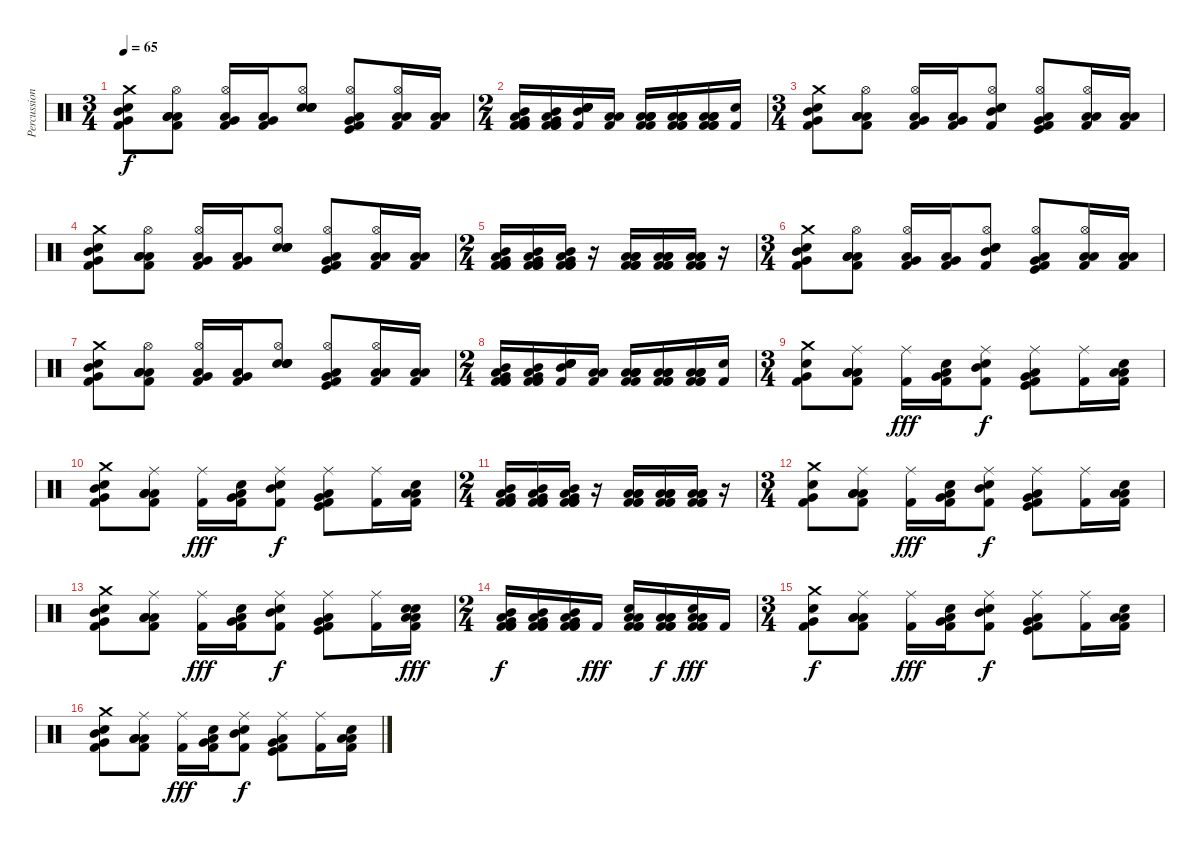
\track ("Percussion" "Percussion") {instrument percussion}
\staff {score}
\articulation defaults
\ts (3 4)
\tempo 65
\clef neutral
\ks c
("Crash medium (hit)" "Mid Tom (hit)" "Very Low Tom (hit)" "Snare (hit) 2" "Kick (hit) 2").8{dy f} ("Hi-Hat (open)" "Low Tom (hit)" "Low Tom (hit)" "Low Tom (hit)" "Kick (hit) 2").8 ("Hi-Hat (open)" "Very Low Tom (hit)" "Low Floor Tom (hit)" "Kick (hit) 2").16 ("Very Low Tom (hit)" "Low Floor Tom (hit)" "Kick (hit) 2").16 ("Hi-Hat (open)" "Electric Snare (hit)" "Electric Snare (hit)" "Snare (hit) 2" "Snare (hit) 2").8 ("Hi-Hat (open)" "Very Low Tom (hit)" "Low Floor Tom (hit)" "Kick (hit)" "Kick (hit) 2").8 ("Hi-Hat (open)" "Low Floor Tom (hit)" "Low Floor Tom (hit)" "Kick (hit) 2").16 ("Low Floor Tom (hit)" "Low Floor Tom (hit)" "Kick (hit) 2").16 |
\ts (2 4)
("Mid Tom (hit)" "Low Floor Tom (hit)" "Very Low Tom (hit)" "Kick (hit) 2" "Kick (hit) 2" "Kick (hit) 2").16 ("Mid Tom (hit)" "Low Floor Tom (hit)" "Very Low Tom (hit)" "Kick (hit) 2" "Kick (hit) 2" "Kick (hit) 2").16 ("Mid Tom (hit)" "Snare (hit) 2" "Snare (hit) 2" "Snare (hit) 2" "Snare (hit) 2" "Kick (hit) 2").16 ("Low Tom (hit)" "Low Floor Tom (hit)" "Kick (hit) 2").16 ("Low Tom (hit)" "Low Floor Tom (hit)" "Low Floor Tom (hit)" "Low Tom (hit)" "Kick (hit) 2" "Kick (hit) 2").16 ("Low Tom (hit)" "Low Floor Tom (hit)" "Low Floor Tom (hit)" "Kick (hit) 2" "Kick (hit) 2" "Kick (hit) 2").16 ("Low Tom (hit)" "Low Floor Tom (hit)" "Low Floor Tom (hit)" "Kick (hit) 2" "Kick (hit) 2" "Kick (hit) 2").16 ("Snare (hit) 2" "Kick (hit) 2").16 |
\ts (3 4)
("Crash medium (hit)" "Mid Tom (hit)" "Very Low Tom (hit)" "Snare (hit) 2" "Kick (hit) 2").8 ("Hi-Hat (open)" "Low Tom (hit)" "Low Tom (hit)" "Low Tom (hit)" "Kick (hit) 2").8 ("Hi-Hat (open)" "Very Low Tom (hit)" "Low Floor Tom (hit)" "Kick (hit) 2").16 ("Very Low Tom (hit)" "Low Floor Tom (hit)" "Kick (hit) 2").16 ("Hi-Hat (open)" "Mid Tom (hit)" "Electric Snare (hit)" "Snare (hit) 2" "Kick (hit) 2").8 ("Hi-Hat (open)" "Very Low Tom (hit)" "Low Tom (hit)" "Kick (hit)" "Kick (hit) 2").8 ("Hi-Hat (open)" "Low Floor Tom (hit)" "Low Floor Tom (hit)" "Kick (hit) 2").16 ("Low Floor Tom (hit)" "Low Floor Tom (hit)" "Kick (hit) 2").16 |
("Crash medium (hit)" "Mid Tom (hit)" "Very Low Tom (hit)" "Snare (hit) 2" "Kick (hit) 2").8 ("Hi-Hat (open)" "Low Tom (hit)" "Low Tom (hit)" "Low Tom (hit)" "Kick (hit) 2").8 ("Hi-Hat (open)" "Very Low Tom (hit)" "Low Floor Tom (hit)" "Kick (hit) 2").16 ("Very Low Tom (hit)" "Low Floor Tom (hit)" "Kick (hit) 2").16 ("Hi-Hat (open)" "Electric Snare (hit)" "Electric Snare (hit)" "Snare (hit) 2" "Snare (hit) 2").8 ("Hi-Hat (open)" "Very Low Tom (hit)" "Low Floor Tom (hit)" "Kick (hit)" "Kick (hit) 2").8 ("Hi-Hat (open)" "Low Floor Tom (hit)" "Low Floor Tom (hit)" "Kick (hit) 2").16 ("Low Floor Tom (hit)" "Low Floor Tom (hit)" "Kick (hit) 2").16 |
\ts (2 4)
("Mid Tom (hit)" "Low Floor Tom (hit)" "Very Low Tom (hit)" "Kick (hit) 2" "Kick (hit) 2" "Kick (hit) 2").16 ("Mid Tom (hit)" "Low Floor Tom (hit)" "Very Low Tom (hit)" "Kick (hit) 2" "Kick (hit) 2" "Kick (hit) 2").16 ("Mid Tom (hit)" "Low Floor Tom (hit)" "Very Low Tom (hit)" "Kick (hit) 2" "Kick (hit) 2" "Kick (hit) 2").16 r.16 ("Low Tom (hit)" "Low Floor Tom (hit)" "Low Floor Tom (hit)" "Kick (hit) 2" "Kick (hit) 2" "Kick (hit) 2").16 ("Low Tom (hit)" "Low Floor Tom (hit)" "Low Floor Tom (hit)" "Kick (hit) 2" "Kick (hit) 2" "Kick (hit) 2").16 ("Low Tom (hit)" "Low Floor Tom (hit)" "Low Floor Tom (hit)" "Kick (hit) 2" "Kick (hit) 2" "Kick (hit) 2").16 r.16 |
\ts (3 4)
("Crash medium (hit)" "Mid Tom (hit)" "Very Low Tom (hit)" "Snare (hit) 2" "Kick (hit) 2").8 ("Hi-Hat (open)" "Low Tom (hit)" "Low Tom (hit)" "Low Tom (hit)" "Kick (hit) 2").8 ("Hi-Hat (open)" "Very Low Tom (hit)" "Low Floor Tom (hit)" "Kick (hit) 2").16 ("Very Low Tom (hit)" "Low Floor Tom (hit)" "Kick (hit) 2").16 ("Hi-Hat (open)" "Mid Tom (hit)" "Electric Snare (hit)" "Snare (hit) 2" "Kick (hit) 2").8 ("Hi-Hat (open)" "Very Low Tom (hit)" "Low Tom (hit)" "Kick (hit)" "Kick (hit) 2").8 ("Hi-Hat (open)" "Low Floor Tom (hit)" "Low Floor Tom (hit)" "Kick (hit) 2").16 ("Low Floor Tom (hit)" "Low Floor Tom (hit)" "Kick (hit) 2").16 |
("Crash medium (hit)" "Mid Tom (hit)" "Very Low Tom (hit)" "Snare (hit) 2" "Kick (hit) 2").8 ("Hi-Hat (open)" "Low Tom (hit)" "Low Tom (hit)" "Low Tom (hit)" "Kick (hit) 2").8 ("Hi-Hat (open)" "Very Low Tom (hit)" "Low Floor Tom (hit)" "Kick (hit) 2").16 ("Very Low Tom (hit)" "Low Floor Tom (hit)" "Kick (hit) 2").16 ("Hi-Hat (open)" "Electric Snare (hit)" "Electric Snare (hit)" "Snare (hit) 2" "Snare (hit) 2").8 ("Hi-Hat (open)" "Very Low Tom (hit)" "Low Floor Tom (hit)" "Kick (hit)" "Kick (hit) 2").8 ("Hi-Hat (open)" "Low Floor Tom (hit)" "Low Floor Tom (hit)" "Kick (hit) 2").16 ("Low Floor Tom (hit)" "Low Floor Tom (hit)" "Kick (hit) 2").16 |
\ts (2 4)
("Mid Tom (hit)" "Low Floor Tom (hit)" "Very Low Tom (hit)" "Kick (hit) 2" "Kick (hit) 2" "Kick (hit) 2").16 ("Mid Tom (hit)" "Low Floor Tom (hit)" "Very Low Tom (hit)" "Kick (hit) 2" "Kick (hit) 2" "Kick (hit) 2").16 ("Mid Tom (hit)" "Snare (hit) 2" "Snare (hit) 2" "Snare (hit) 2" "Snare (hit) 2" "Kick (hit) 2").16 ("Low Tom (hit)" "Low Floor Tom (hit)" "Kick (hit) 2").16 ("Low Tom (hit)" "Low Floor Tom (hit)" "Low Floor Tom (hit)" "Low Tom (hit)" "Kick (hit) 2" "Kick (hit) 2").16 ("Low Tom (hit)" "Low Floor Tom (hit)" "Low Floor Tom (hit)" "Kick (hit) 2" "Kick (hit) 2" "Kick (hit) 2").16 ("Low Tom (hit)" "Low Floor Tom (hit)" "Low Floor Tom (hit)" "Kick (hit) 2" "Kick (hit) 2" "Kick (hit) 2").16 ("Snare (hit) 2" "Kick (hit) 2").16 |
\ts (3 4)
("Crash medium (hit)" "Very Low Tom (hit)" "Snare (hit) 2" "Kick (hit) 2").8 ("Ride (middle)" "Low Tom (hit)" "Low Tom (hit)" "Low Tom (hit)" "Kick (hit) 2").8 ("Ride (middle)" "Kick (hit) 2").16{dy fff} ("Snare (hit) 2" "Very Low Tom (hit)" "Low Floor Tom (hit)" "Kick (hit) 2").16 ("Ride (middle)" "Mid Tom (hit)" "Electric Snare (hit)" "Kick (hit) 2").8{dy f} ("Ride (middle)" "Very Low Tom (hit)" "Low Tom (hit)" "Kick (hit)" "Kick (hit) 2").8 ("Ride (middle)" "Kick (hit) 2").16 ("Snare (hit) 2" "Low Floor Tom (hit)" "Low Floor Tom (hit)" "Kick (hit) 2").16 |
("Crash medium (hit)" "Mid Tom (hit)" "Very Low Tom (hit)" "Snare (hit) 2" "Kick (hit) 2").8 ("Ride (middle)" "Low Tom (hit)" "Low Tom (hit)" "Low Tom (hit)" "Kick (hit) 2").8 ("Ride (middle)" "Kick (hit) 2").16{dy fff} ("Snare (hit) 2" "Very Low Tom (hit)" "Low Floor Tom (hit)" "Kick (hit) 2").16 ("Ride (middle)" "Mid Tom (hit)" "Electric Snare (hit)" "Kick (hit) 2").8{dy f} ("Ride (middle)" "Very Low Tom (hit)" "Low Tom (hit)" "Kick (hit)" "Kick (hit) 2").8 ("Ride (middle)" "Kick (hit) 2").16 ("Snare (hit) 2" "Low Floor Tom (hit)" "Low Floor Tom (hit)" "Kick (hit) 2").16 |
\ts (2 4)
("Mid Tom (hit)" "Low Floor Tom (hit)" "Very Low Tom (hit)" "Kick (hit) 2" "Kick (hit) 2" "Kick (hit) 2").16 ("Mid Tom (hit)" "Low Floor Tom (hit)" "Very Low Tom (hit)" "Kick (hit) 2" "Kick (hit) 2" "Kick (hit) 2").16 ("Mid Tom (hit)" "Low Floor Tom (hit)" "Very Low Tom (hit)" "Kick (hit) 2" "Kick (hit) 2" "Kick (hit) 2").16 r.16 ("Low Tom (hit)" "Low Floor Tom (hit)" "Low Floor Tom (hit)" "Kick (hit) 2" "Kick (hit) 2" "Kick (hit) 2").16 ("Low Tom (hit)" "Low Floor Tom (hit)" "Low Floor Tom (hit)" "Kick (hit) 2" "Kick (hit) 2" "Kick (hit) 2").16 ("Low Tom (hit)" "Low Floor Tom (hit)" "Low Floor Tom (hit)" "Kick (hit) 2" "Kick (hit) 2" "Kick (hit) 2").16 r.16 |
\ts (3 4)
("Crash medium (hit)" "Very Low Tom (hit)" "Snare (hit) 2" "Kick (hit) 2").8 ("Ride (middle)" "Low Tom (hit)" "Low Tom (hit)" "Low Tom (hit)" "Kick (hit) 2").8 ("Ride (middle)" "Kick (hit) 2").16{dy fff} ("Snare (hit) 2" "Very Low Tom (hit)" "Low Floor Tom (hit)" "Kick (hit) 2").16 ("Ride (middle)" "Mid Tom (hit)" "Electric Snare (hit)" "Kick (hit) 2").8{dy f} ("Ride (middle)" "Very Low Tom (hit)" "Low Tom (hit)" "Kick (hit)" "Kick (hit) 2").8 ("Ride (middle)" "Kick (hit) 2").16 ("Snare (hit) 2" "Low Floor Tom (hit)" "Low Floor Tom (hit)" "Kick (hit) 2").16 |
("Crash medium (hit)" "Mid Tom (hit)" "Very Low Tom (hit)" "Snare (hit) 2" "Kick (hit) 2").8 ("Ride (middle)" "Low Tom (hit)" "Low Tom (hit)" "Low Tom (hit)" "Kick (hit) 2").8 ("Ride (middle)" "Kick (hit) 2").16{dy fff} ("Snare (hit) 2" "Very Low Tom (hit)" "Low Floor Tom (hit)" "Kick (hit) 2").16 ("Ride (middle)" "Mid Tom (hit)" "Electric Snare (hit)" "Kick (hit) 2").8{dy f} ("Ride (middle)" "Very Low Tom (hit)" "Low Tom (hit)" "Kick (hit)" "Kick (hit) 2").8 ("Ride (middle)" "Kick (hit) 2").16 ("Snare (hit) 2" "Electric Snare (hit)" "Low Floor Tom (hit)" "Low Floor Tom (hit)" "Kick (hit) 2").16{dy fff} |
\ts (2 4)
("Mid Tom (hit)" "Low Floor Tom (hit)" "Very Low Tom (hit)" "Kick (hit) 2" "Kick (hit) 2" "Kick (hit) 2").16{dy f} ("Mid Tom (hit)" "Low Floor Tom (hit)" "Very Low Tom (hit)" "Kick (hit) 2" "Kick (hit) 2" "Kick (hit) 2").16 ("Mid Tom (hit)" "Low Floor Tom (hit)" "Very Low Tom (hit)" "Kick (hit) 2" "Kick (hit) 2" "Kick (hit) 2").16 "Kick (hit) 2".16{dy fff} ("Snare (hit) 2" "Low Floor Tom (hit)" "Low Floor Tom (hit)" "Kick (hit) 2" "Kick (hit) 2" "Kick (hit) 2").16 ("Low Tom (hit)" "Low Floor Tom (hit)" "Low Floor Tom (hit)" "Kick (hit) 2" "Kick (hit) 2" "Kick (hit) 2").16{dy f} ("Snare (hit) 2" "Low Floor Tom (hit)" "Low Floor Tom (hit)" "Kick (hit) 2" "Kick (hit) 2" "Kick (hit) 2").16{dy fff} "Kick (hit) 2".16 |
\ts (3 4)
("Crash medium (hit)" "Very Low Tom (hit)" "Snare (hit) 2" "Kick (hit) 2").8{dy f} ("Ride (middle)" "Low Tom (hit)" "Low Tom (hit)" "Low Tom (hit)" "Kick (hit) 2").8 ("Ride (middle)" "Kick (hit) 2").16{dy fff} ("Snare (hit) 2" "Very Low Tom (hit)" "Low Floor Tom (hit)" "Kick (hit) 2").16 ("Ride (middle)" "Mid Tom (hit)" "Electric Snare (hit)" "Kick (hit) 2").8{dy f} ("Ride (middle)" "Very Low Tom (hit)" "Low Tom (hit)" "Kick (hit)" "Kick (hit) 2").8 ("Ride (middle)" "Kick (hit) 2").16 ("Snare (hit) 2" "Low Floor Tom (hit)" "Low Floor Tom (hit)" "Kick (hit) 2").16 |
("Crash medium (hit)" "Mid Tom (hit)" "Very Low Tom (hit)" "Snare (hit) 2" "Kick (hit) 2").8 ("Ride (middle)" "Low Tom (hit)" "Low Tom (hit)" "Low Tom (hit)" "Kick (hit) 2").8 ("Ride (middle)" "Kick (hit) 2").16{dy fff} ("Snare (hit) 2" "Very Low Tom (hit)" "Low Floor Tom (hit)" "Kick (hit) 2").16 ("Ride (middle)" "Mid Tom (hit)" "Electric Snare (hit)" "Kick (hit) 2").8{dy f} ("Ride (middle)" "Very Low Tom (hit)" "Low Tom (hit)" "Kick (hit)" "Kick (hit) 2").8 ("Ride (middle)" "Kick (hit) 2").16 ("Snare (hit) 2" "Low Floor Tom (hit)" "Low Floor Tom (hit)" "Kick (hit) 2").16
